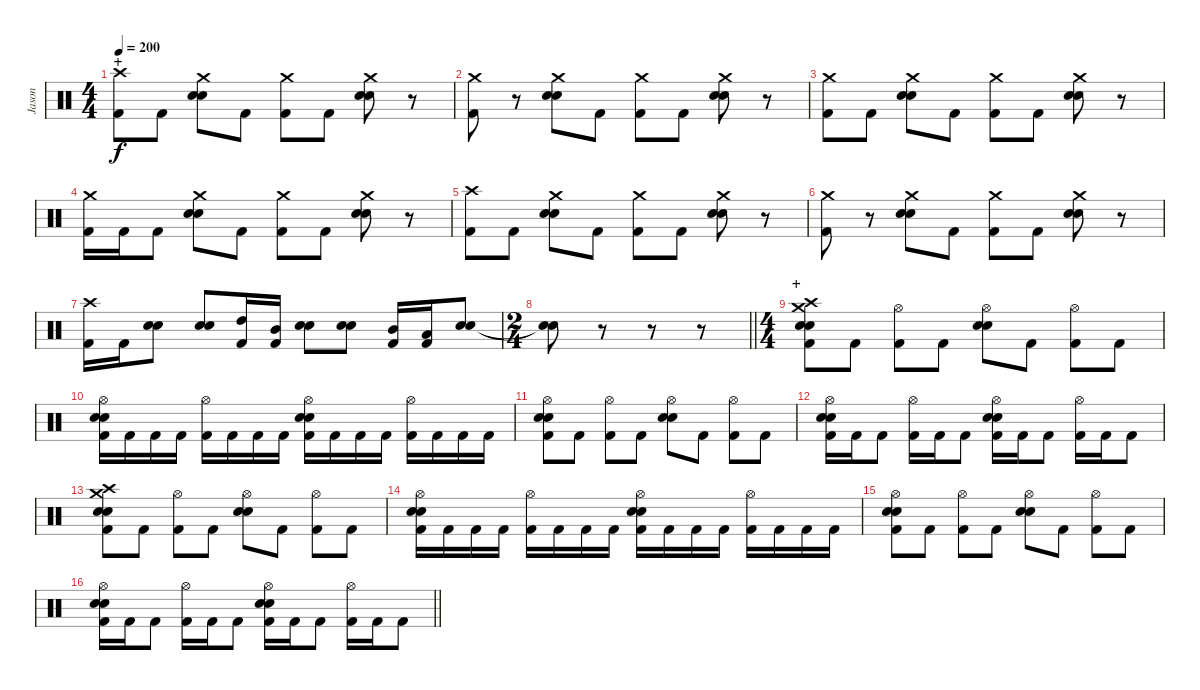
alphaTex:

\track ("Jason" "Jason") {instrument percussion}
\staff {score}
\articulation defaults
\ts (4 4)
\section ("" "+")
\tempo 200
\clef neutral
\ks c
("Crash high (hit)" "Kick (hit) 2").8{dy f} "Kick (hit) 2".8 ("Crash medium (hit)" "Electric Snare (hit)" "Snare (hit) 2").8 "Kick (hit) 2".8 ("Crash medium (hit)" "Kick (hit) 2").8 "Kick (hit) 2".8 ("Crash medium (hit)" "Electric Snare (hit)" "Snare (hit) 2").8 r.8 |
("Crash medium (hit)" "Kick (hit) 2").8 r.8 ("Crash medium (hit)" "Electric Snare (hit)" "Snare (hit) 2").8 "Kick (hit) 2".8 ("Crash medium (hit)" "Kick (hit) 2").8 "Kick (hit) 2".8 ("Crash medium (hit)" "Electric Snare (hit)" "Snare (hit) 2").8 r.8 |
("Crash medium (hit)" "Kick (hit) 2").8 "Kick (hit) 2".8 ("Crash medium (hit)" "Electric Snare (hit)" "Snare (hit) 2").8 "Kick (hit) 2".8 ("Crash medium (hit)" "Kick (hit) 2").8 "Kick (hit) 2".8 ("Crash medium (hit)" "Electric Snare (hit)" "Snare (hit) 2").8 r.8 |
("Crash medium (hit)" "Kick (hit) 2").16 "Kick (hit) 2".16 "Kick (hit) 2".8 ("Crash medium (hit)" "Electric Snare (hit)" "Snare (hit) 2").8 "Kick (hit) 2".8 ("Crash medium (hit)" "Kick (hit) 2").8 "Kick (hit) 2".8 ("Crash medium (hit)" "Electric Snare (hit)" "Snare (hit) 2").8 r.8 |
("Crash high (hit)" "Kick (hit) 2").8 "Kick (hit) 2".8 ("Crash medium (hit)" "Electric Snare (hit)" "Snare (hit) 2").8 "Kick (hit) 2".8 ("Crash medium (hit)" "Kick (hit) 2").8 "Kick (hit) 2".8 ("Crash medium (hit)" "Electric Snare (hit)" "Snare (hit) 2").8 r.8 |
("Crash medium (hit)" "Kick (hit) 2").8 r.8 ("Crash medium (hit)" "Electric Snare (hit)" "Snare (hit) 2").8 "Kick (hit) 2".8 ("Crash medium (hit)" "Kick (hit) 2").8 "Kick (hit) 2".8 ("Crash medium (hit)" "Electric Snare (hit)" "Snare (hit) 2").8 r.8 |
("Crash high (hit)" "Kick (hit) 2").16 "Kick (hit) 2".16 ("Electric Snare (hit)" "Snare (hit) 2").8 ("Electric Snare (hit)" "Snare (hit) 2").8 ("High Tom (hit)" "Kick (hit) 2").16 ("Mid Tom (hit)" "Kick (hit) 2").16 ("Electric Snare (hit)" "Snare (hit) 2").8 ("Electric Snare (hit)" "Snare (hit) 2").8 ("Mid Tom (hit)" "Kick (hit) 2").16 ("Low Tom (hit)" "Kick (hit) 2").16 ("Electric Snare (hit)" "Snare (hit) 2").8 |
\ts (2 4)
\barLineRight lightlight
("Snare (hit)"{t} "Snare (hit)"{t}).8 r.8 r.8 r.8 |
\ts (4 4)
\section ("" "+")
("Crash medium (hit)" "Crash high (hit)" "Electric Snare (hit)" "Snare (hit) 2" "Kick (hit) 2").8 "Kick (hit) 2".8 ("Hi-Hat (open)" "Kick (hit) 2").8 "Kick (hit) 2".8 ("Hi-Hat (open)" "Electric Snare (hit)" "Snare (hit) 2").8 "Kick (hit) 2".8 ("Hi-Hat (open)" "Kick (hit) 2").8 "Kick (hit) 2".8 |
("Hi-Hat (open)" "Electric Snare (hit)" "Snare (hit) 2" "Kick (hit) 2").16 "Kick (hit) 2".16 "Kick (hit) 2".16 "Kick (hit) 2".16 ("Hi-Hat (open)" "Kick (hit) 2").16 "Kick (hit) 2".16 "Kick (hit) 2".16 "Kick (hit) 2".16 ("Hi-Hat (open)" "Electric Snare (hit)" "Snare (hit) 2" "Kick (hit) 2").16 "Kick (hit) 2".16 "Kick (hit) 2".16 "Kick (hit) 2".16 ("Hi-Hat (open)" "Kick (hit) 2").16 "Kick (hit) 2".16 "Kick (hit) 2".16 "Kick (hit) 2".16 |
("Hi-Hat (open)" "Electric Snare (hit)" "Snare (hit) 2" "Kick (hit) 2").8 "Kick (hit) 2".8 ("Hi-Hat (open)" "Kick (hit) 2").8 "Kick (hit) 2".8 ("Hi-Hat (open)" "Electric Snare (hit)" "Snare (hit) 2").8 "Kick (hit) 2".8 ("Hi-Hat (open)" "Kick (hit) 2").8 "Kick (hit) 2".8 |
("Hi-Hat (open)" "Electric Snare (hit)" "Snare (hit) 2" "Kick (hit) 2").16 "Kick (hit) 2".16 "Kick (hit) 2".8 ("Hi-Hat (open)" "Kick (hit) 2").16 "Kick (hit) 2".16 "Kick (hit) 2".8 ("Hi-Hat (open)" "Electric Snare (hit)" "Snare (hit) 2" "Kick (hit) 2").16 "Kick (hit) 2".16 "Kick (hit) 2".8 ("Hi-Hat (open)" "Kick (hit) 2").16 "Kick (hit) 2".16 "Kick (hit) 2".8 |
("Crash medium (hit)" "Crash high (hit)" "Electric Snare (hit)" "Snare (hit) 2" "Kick (hit) 2").8 "Kick (hit) 2".8 ("Hi-Hat (open)" "Kick (hit) 2").8 "Kick (hit) 2".8 ("Hi-Hat (open)" "Electric Snare (hit)" "Snare (hit) 2").8 "Kick (hit) 2".8 ("Hi-Hat (open)" "Kick (hit) 2").8 "Kick (hit) 2".8 |
("Hi-Hat (open)" "Electric Snare (hit)" "Snare (hit) 2" "Kick (hit) 2").16 "Kick (hit) 2".16 "Kick (hit) 2".16 "Kick (hit) 2".16 ("Hi-Hat (open)" "Kick (hit) 2").16 "Kick (hit) 2".16 "Kick (hit) 2".16 "Kick (hit) 2".16 ("Hi-Hat (open)" "Electric Snare (hit)" "Snare (hit) 2" "Kick (hit) 2").16 "Kick (hit) 2".16 "Kick (hit) 2".16 "Kick (hit) 2".16 ("Hi-Hat (open)" "Kick (hit) 2").16 "Kick (hit) 2".16 "Kick (hit) 2".16 "Kick (hit) 2".16 |
("Hi-Hat (open)" "Electric Snare (hit)" "Snare (hit) 2" "Kick (hit) 2").8 "Kick (hit) 2".8 ("Hi-Hat (open)" "Kick (hit) 2").8 "Kick (hit) 2".8 ("Hi-Hat (open)" "Electric Snare (hit)" "Snare (hit) 2").8 "Kick (hit) 2".8 ("Hi-Hat (open)" "Kick (hit) 2").8 "Kick (hit) 2".8 |
\barLineRight lightlight
("Hi-Hat (open)" "Electric Snare (hit)" "Snare (hit) 2" "Kick (hit) 2").16 "Kick (hit) 2".16 "Kick (hit) 2".8 ("Hi-Hat (open)" "Kick (hit) 2").16 "Kick (hit) 2".16 "Kick (hit) 2".8 ("Hi-Hat (open)" "Electric Snare (hit)" "Snare (hit) 2" "Kick (hit) 2").16 "Kick (hit) 2".16 "Kick (hit) 2".8 ("Hi-Hat (open)" "Kick (hit) 2").16 "Kick (hit) 2".16 "Kick (hit) 2".8
